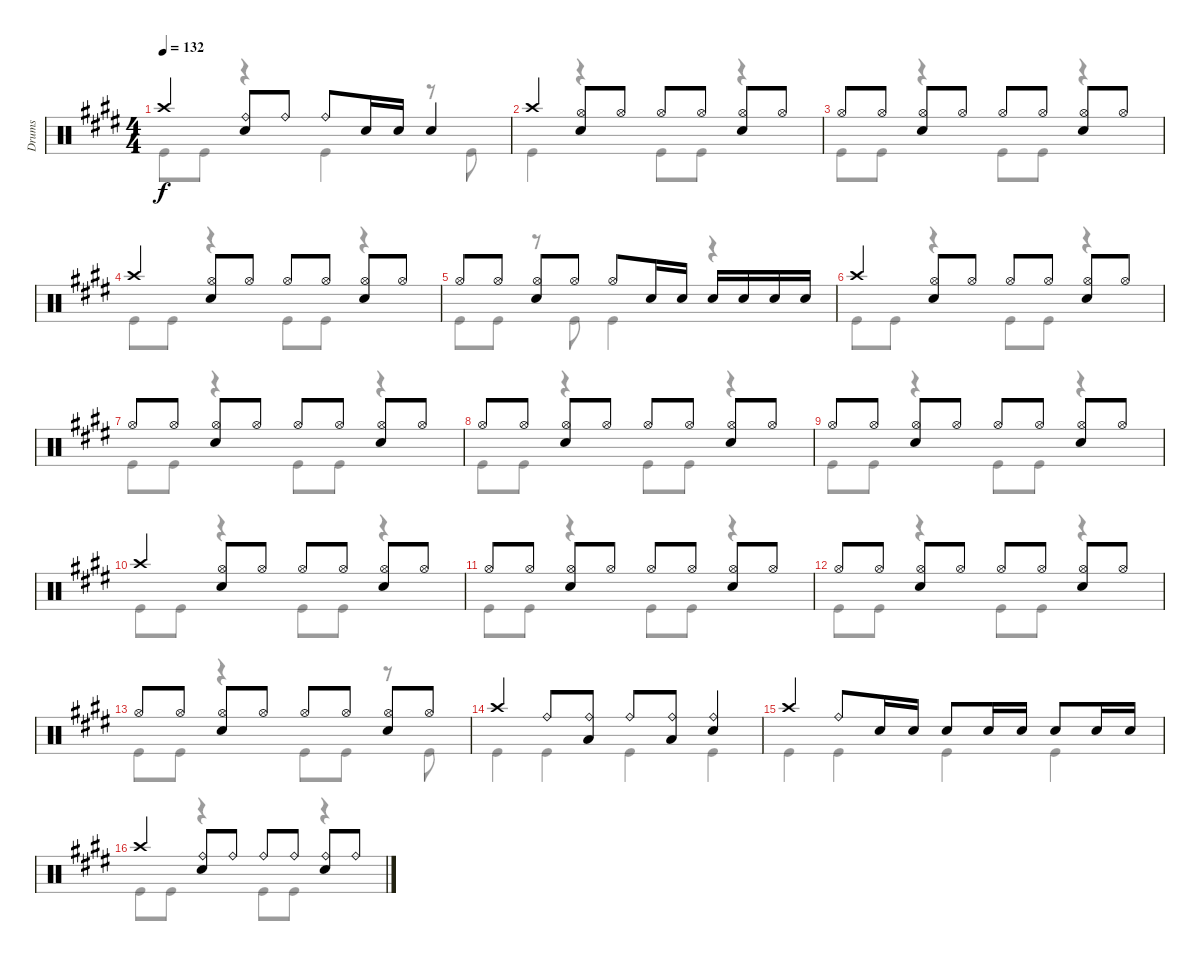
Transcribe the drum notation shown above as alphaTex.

\track ("Drums" "Drums") {instrument percussion}
\staff {score}
\articulation defaults
\voice
\ts (4 4)
\tempo 132
\clef neutral
\ks e "Crash high (hit)".4{dy f}
("Ride (bell)" "Snare (hit) 2").8 "Ride (bell)".8 "Ride (bell)".8 "Snare (hit) 2".16 "Snare (hit) 2".16 "Snare (hit) 2".4 |
"Crash high (hit)".4 ("Hi-Hat (open)" "Snare (hit) 2").8 "Hi-Hat (open)".8 "Hi-Hat (open)".8 "Hi-Hat (open)".8 ("Hi-Hat (open)" "Snare (hit) 2").8 "Hi-Hat (open)".8 |
"Hi-Hat (open)".8 "Hi-Hat (open)".8 ("Hi-Hat (open)" "Snare (hit) 2").8 "Hi-Hat (open)".8 "Hi-Hat (open)".8 "Hi-Hat (open)".8 ("Hi-Hat (open)" "Snare (hit) 2").8 "Hi-Hat (open)".8 |
"Crash high (hit)".4 ("Hi-Hat (open)" "Snare (hit) 2").8 "Hi-Hat (open)".8 "Hi-Hat (open)".8 "Hi-Hat (open)".8 ("Hi-Hat (open)" "Snare (hit) 2").8 "Hi-Hat (open)".8 |
"Hi-Hat (open)".8 "Hi-Hat (open)".8 ("Hi-Hat (open)" "Snare (hit) 2").8 "Hi-Hat (open)".8 "Hi-Hat (open)".8 "Snare (hit) 2".16 "Snare (hit) 2".16 "Snare (hit) 2".16 "Snare (hit) 2".16 "Snare (hit) 2".16 "Snare (hit) 2".16 |
"Crash high (hit)".4 ("Hi-Hat (open)" "Snare (hit) 2").8 "Hi-Hat (open)".8 "Hi-Hat (open)".8 "Hi-Hat (open)".8 ("Hi-Hat (open)" "Snare (hit) 2").8 "Hi-Hat (open)".8 |
"Hi-Hat (open)".8 "Hi-Hat (open)".8 ("Hi-Hat (open)" "Snare (hit) 2").8 "Hi-Hat (open)".8 "Hi-Hat (open)".8 "Hi-Hat (open)".8 ("Hi-Hat (open)" "Snare (hit) 2").8 "Hi-Hat (open)".8 |
"Hi-Hat (open)".8 "Hi-Hat (open)".8 ("Hi-Hat (open)" "Snare (hit) 2").8 "Hi-Hat (open)".8 "Hi-Hat (open)".8 "Hi-Hat (open)".8 ("Hi-Hat (open)" "Snare (hit) 2").8 "Hi-Hat (open)".8 |
"Hi-Hat (open)".8 "Hi-Hat (open)".8 ("Hi-Hat (open)" "Snare (hit) 2").8 "Hi-Hat (open)".8 "Hi-Hat (open)".8 "Hi-Hat (open)".8 ("Hi-Hat (open)" "Snare (hit) 2").8 "Hi-Hat (open)".8 |
"Crash high (hit)".4 ("Hi-Hat (open)" "Snare (hit) 2").8 "Hi-Hat (open)".8 "Hi-Hat (open)".8 "Hi-Hat (open)".8 ("Hi-Hat (open)" "Snare (hit) 2").8 "Hi-Hat (open)".8 |
"Hi-Hat (open)".8 "Hi-Hat (open)".8 ("Hi-Hat (open)" "Snare (hit) 2").8 "Hi-Hat (open)".8 "Hi-Hat (open)".8 "Hi-Hat (open)".8 ("Hi-Hat (open)" "Snare (hit) 2").8 "Hi-Hat (open)".8 |
"Hi-Hat (open)".8 "Hi-Hat (open)".8 ("Hi-Hat (open)" "Snare (hit) 2").8 "Hi-Hat (open)".8 "Hi-Hat (open)".8 "Hi-Hat (open)".8 ("Hi-Hat (open)" "Snare (hit) 2").8 "Hi-Hat (open)".8 |
"Hi-Hat (open)".8 "Hi-Hat (open)".8 ("Hi-Hat (open)" "Snare (hit) 2").8 "Hi-Hat (open)".8 "Hi-Hat (open)".8 "Hi-Hat (open)".8 ("Hi-Hat (open)" "Snare (hit) 2").8 "Hi-Hat (open)".8 |
"Crash high (hit)".4 "Ride (bell)".8 ("Ride (bell)" "Low Tom (hit)").8 "Ride (bell)".8 ("Ride (bell)" "Low Tom (hit)").8 ("Snare (hit) 2" "Ride (bell)").4 |
"Crash high (hit)".4 "Ride (bell)".8 "Snare (hit) 2".16 "Snare (hit) 2".16 "Snare (hit) 2".8 "Snare (hit) 2".16 "Snare (hit) 2".16 "Snare (hit) 2".8 "Snare (hit) 2".16 "Snare (hit) 2".16 |
"Crash high (hit)".4 ("Ride (bell)" "Snare (hit) 2").8 "Ride (bell)".8 "Ride (bell)".8 "Ride (bell)".8 ("Ride (bell)" "Snare (hit) 2").8 "Ride (bell)".8
\voice
\clef neutral
\ottava regular
\simile none
\ks e "Kick (hit)".8{dy f} "Kick (hit)".8
r.4 "Kick (hit)".4 r.8 "Kick (hit)".8 |
"Kick (hit)".4 r.4 "Kick (hit)".8 "Kick (hit)".8 r.4 |
"Kick (hit)".8 "Kick (hit)".8 r.4 "Kick (hit)".8 "Kick (hit)".8 r.4 |
"Kick (hit)".8 "Kick (hit)".8 r.4 "Kick (hit)".8 "Kick (hit)".8 r.4 |
"Kick (hit)".8 "Kick (hit)".8 r.8 "Kick (hit)".8 "Kick (hit)".4 r.4 |
"Kick (hit)".8 "Kick (hit)".8 r.4 "Kick (hit)".8 "Kick (hit)".8 r.4 |
"Kick (hit)".8 "Kick (hit)".8 r.4 "Kick (hit)".8 "Kick (hit)".8 r.4 |
"Kick (hit)".8 "Kick (hit)".8 r.4 "Kick (hit)".8 "Kick (hit)".8 r.4 |
"Kick (hit)".8 "Kick (hit)".8 r.4 "Kick (hit)".8 "Kick (hit)".8 r.4 |
"Kick (hit)".8 "Kick (hit)".8 r.4 "Kick (hit)".8 "Kick (hit)".8 r.4 |
"Kick (hit)".8 "Kick (hit)".8 r.4 "Kick (hit)".8 "Kick (hit)".8 r.4 |
"Kick (hit)".8 "Kick (hit)".8 r.4 "Kick (hit)".8 "Kick (hit)".8 r.4 |
"Kick (hit)".8 "Kick (hit)".8 r.4 "Kick (hit)".8 "Kick (hit)".8 r.8 "Kick (hit)".8 |
"Kick (hit)".4 "Kick (hit)".4 "Kick (hit)".4 "Kick (hit)".4 |
"Kick (hit)".4 "Kick (hit)".4 "Kick (hit)".4 "Kick (hit)".4 |
"Kick (hit)".8 "Kick (hit)".8 r.4 "Kick (hit)".8 "Kick (hit)".8 r.4
